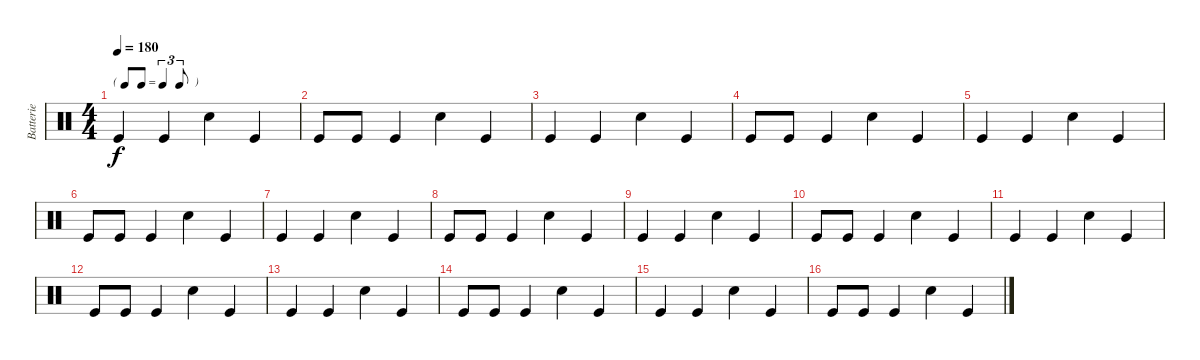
\track ("Batterie" "Batterie") {instrument percussion}
\staff {score}
\articulation defaults
\ts (4 4)
\tf triplet8th
\tempo 180
\clef neutral
\ks c "Kick (hit)".4{dy f} "Kick (hit)".4 "Electric Snare (hit)".4 "Kick (hit)".4
|
"Kick (hit)".8 "Kick (hit)".8 "Kick (hit)".4 "Electric Snare (hit)".4 "Kick (hit)".4 |
"Kick (hit)".4 "Kick (hit)".4 "Electric Snare (hit)".4 "Kick (hit)".4 |
"Kick (hit)".8 "Kick (hit)".8 "Kick (hit)".4 "Electric Snare (hit)".4 "Kick (hit)".4 |
"Kick (hit)".4 "Kick (hit)".4 "Electric Snare (hit)".4 "Kick (hit)".4 |
"Kick (hit)".8 "Kick (hit)".8 "Kick (hit)".4 "Electric Snare (hit)".4 "Kick (hit)".4 |
"Kick (hit)".4 "Kick (hit)".4 "Electric Snare (hit)".4 "Kick (hit)".4 |
"Kick (hit)".8 "Kick (hit)".8 "Kick (hit)".4 "Electric Snare (hit)".4 "Kick (hit)".4 |
"Kick (hit)".4 "Kick (hit)".4 "Electric Snare (hit)".4 "Kick (hit)".4 |
"Kick (hit)".8 "Kick (hit)".8 "Kick (hit)".4 "Electric Snare (hit)".4 "Kick (hit)".4 |
"Kick (hit)".4 "Kick (hit)".4 "Electric Snare (hit)".4 "Kick (hit)".4 |
"Kick (hit)".8 "Kick (hit)".8 "Kick (hit)".4 "Electric Snare (hit)".4 "Kick (hit)".4 |
"Kick (hit)".4 "Kick (hit)".4 "Electric Snare (hit)".4 "Kick (hit)".4 |
"Kick (hit)".8 "Kick (hit)".8 "Kick (hit)".4 "Electric Snare (hit)".4 "Kick (hit)".4 |
"Kick (hit)".4 "Kick (hit)".4 "Electric Snare (hit)".4 "Kick (hit)".4 |
"Kick (hit)".8 "Kick (hit)".8 "Kick (hit)".4 "Electric Snare (hit)".4 "Kick (hit)".4
